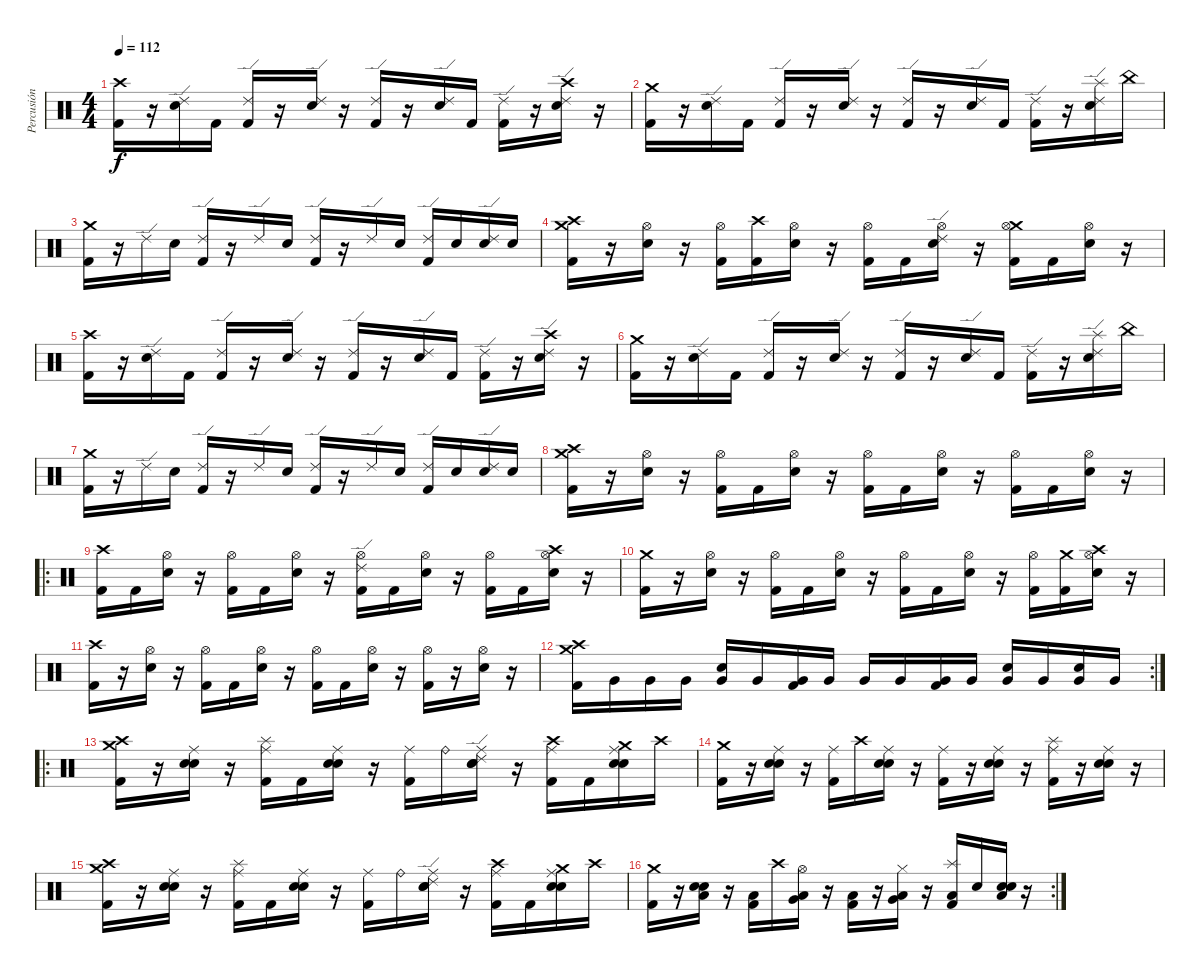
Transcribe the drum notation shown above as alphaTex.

\track ("Percusión" "Percusión") {instrument percussion}
\staff {score}
\articulation defaults
\ts (4 4)
\tempo 112
\clef neutral
\ks c
("Crash high (hit)" "Kick (hit) 2").16{dy f} r.16 ("Ride (edge) 2" "Electric Snare (hit)").16 "Kick (hit) 2".16 ("Ride (edge) 2" "Kick (hit) 2").16 r.16 ("Ride (edge) 2" "Electric Snare (hit)").16 r.16 ("Ride (edge) 2" "Kick (hit) 2").16 r.16 ("Ride (edge) 2" "Electric Snare (hit)").16 "Kick (hit) 2".16 ("Ride (edge) 2" "Kick (hit) 2").16 r.16 ("Crash high (hit)" "Ride (edge) 2" "Electric Snare (hit)").16 r.16 |
("Crash medium (hit)" "Kick (hit) 2").16 r.16 ("Ride (edge) 2" "Electric Snare (hit)").16 "Kick (hit) 2".16 ("Ride (edge) 2" "Kick (hit) 2").16 r.16 ("Ride (edge) 2" "Electric Snare (hit)").16 r.16 ("Ride (edge) 2" "Kick (hit) 2").16 r.16 ("Ride (edge) 2" "Electric Snare (hit)").16 "Kick (hit) 2".16 ("Ride (edge) 2" "Kick (hit) 2").16 r.16 ("Splash (hit)" "Ride (edge) 2" "Electric Snare (hit)").16 "China (hit)".16 |
("Crash medium (hit)" "Kick (hit) 2").16 r.16 "Ride (edge) 2".16 "Electric Snare (hit)".16 ("Ride (edge) 2" "Kick (hit) 2").16 r.16 "Ride (edge) 2".16 "Electric Snare (hit)".16 ("Ride (edge) 2" "Kick (hit) 2").16 r.16 "Ride (edge) 2".16 "Electric Snare (hit)".16 ("Ride (edge) 2" "Kick (hit) 2").16 "Electric Snare (hit)".16 ("Ride (edge) 2" "Electric Snare (hit)").16 "Electric Snare (hit)".16 |
("Crash high (hit)" "Crash medium (hit)" "Kick (hit) 2").16 r.16 ("Hi-Hat (open)" "Electric Snare (hit)").16 r.16 ("Hi-Hat (open)" "Kick (hit) 2").16 ("Crash high (hit)" "Kick (hit) 2").16 ("Hi-Hat (open)" "Electric Snare (hit)").16 r.16 ("Hi-Hat (open)" "Kick (hit) 2").16 "Kick (hit) 2".16 ("Ride (edge) 2" "Hi-Hat (open)" "Electric Snare (hit)").16 r.16 ("Crash medium (hit)" "Hi-Hat (open)" "Kick (hit) 2").16 "Kick (hit) 2".16 ("Hi-Hat (open)" "Electric Snare (hit)").16 r.16 |
("Crash high (hit)" "Kick (hit) 2").16 r.16 ("Ride (edge) 2" "Electric Snare (hit)").16 "Kick (hit) 2".16 ("Ride (edge) 2" "Kick (hit) 2").16 r.16 ("Ride (edge) 2" "Electric Snare (hit)").16 r.16 ("Ride (edge) 2" "Kick (hit) 2").16 r.16 ("Ride (edge) 2" "Electric Snare (hit)").16 "Kick (hit) 2".16 ("Ride (edge) 2" "Kick (hit) 2").16 r.16 ("Crash high (hit)" "Ride (edge) 2" "Electric Snare (hit)").16 r.16 |
("Crash medium (hit)" "Kick (hit) 2").16 r.16 ("Ride (edge) 2" "Electric Snare (hit)").16 "Kick (hit) 2".16 ("Ride (edge) 2" "Kick (hit) 2").16 r.16 ("Ride (edge) 2" "Electric Snare (hit)").16 r.16 ("Ride (edge) 2" "Kick (hit) 2").16 r.16 ("Ride (edge) 2" "Electric Snare (hit)").16 "Kick (hit) 2".16 ("Ride (edge) 2" "Kick (hit) 2").16 r.16 ("Splash (hit)" "Ride (edge) 2" "Electric Snare (hit)").16 "China (hit)".16 |
("Crash medium (hit)" "Kick (hit) 2").16 r.16 "Ride (edge) 2".16 "Electric Snare (hit)".16 ("Ride (edge) 2" "Kick (hit) 2").16 r.16 "Ride (edge) 2".16 "Electric Snare (hit)".16 ("Ride (edge) 2" "Kick (hit) 2").16 r.16 "Ride (edge) 2".16 "Electric Snare (hit)".16 ("Ride (edge) 2" "Kick (hit) 2").16 "Electric Snare (hit)".16 ("Ride (edge) 2" "Electric Snare (hit)").16 "Electric Snare (hit)".16 |
("Crash high (hit)" "Crash medium (hit)" "Kick (hit) 2").16 r.16 ("Hi-Hat (open)" "Electric Snare (hit)").16 r.16 ("Hi-Hat (open)" "Kick (hit) 2").16 "Kick (hit) 2".16 ("Hi-Hat (open)" "Electric Snare (hit)").16 r.16 ("Hi-Hat (open)" "Kick (hit) 2").16 "Kick (hit) 2".16 ("Hi-Hat (open)" "Electric Snare (hit)").16 r.16 ("Hi-Hat (open)" "Kick (hit) 2").16 "Kick (hit) 2".16 ("Hi-Hat (open)" "Electric Snare (hit)").16 r.16 |
\ro
("Crash high (hit)" "Kick (hit) 2").16 "Kick (hit) 2".16 ("Hi-Hat (open)" "Electric Snare (hit)").16 r.16 ("Hi-Hat (open)" "Kick (hit) 2").16 "Kick (hit) 2".16 ("Hi-Hat (open)" "Electric Snare (hit)").16 r.16 ("Ride (edge) 2" "Hi-Hat (open)" "Kick (hit) 2").16 "Kick (hit) 2".16 ("Hi-Hat (open)" "Electric Snare (hit)").16 r.16 ("Hi-Hat (open)" "Kick (hit) 2").16 "Kick (hit) 2".16 ("Crash high (hit)" "Hi-Hat (open)" "Electric Snare (hit)").16 r.16 |
("Crash medium (hit)" "Kick (hit) 2").16 r.16 ("Hi-Hat (open)" "Electric Snare (hit)").16 r.16 ("Hi-Hat (open)" "Kick (hit) 2").16 "Kick (hit) 2".16 ("Hi-Hat (open)" "Electric Snare (hit)").16 r.16 ("Hi-Hat (open)" "Kick (hit) 2").16 "Kick (hit) 2".16 ("Hi-Hat (open)" "Electric Snare (hit)").16 r.16 ("Hi-Hat (open)" "Kick (hit) 2").16 ("Crash medium (hit)" "Kick (hit) 2").16 ("Crash high (hit)" "Hi-Hat (open)" "Electric Snare (hit)").16 r.16 |
("Crash high (hit)" "Kick (hit) 2").16 r.16 ("Hi-Hat (open)" "Electric Snare (hit)").16 r.16 ("Hi-Hat (open)" "Kick (hit) 2").16 "Kick (hit) 2".16 ("Hi-Hat (open)" "Electric Snare (hit)").16 r.16 ("Hi-Hat (open)" "Kick (hit) 2").16 "Kick (hit) 2".16 ("Hi-Hat (open)" "Electric Snare (hit)").16 r.16 ("Hi-Hat (open)" "Kick (hit) 2").16 r.16 ("Hi-Hat (open)" "Electric Snare (hit)").16 r.16 |
\rc 2
("Crash medium (hit)" "Crash high (hit)" "Kick (hit) 2").16 "Very Low Tom (hit)".16 "Very Low Tom (hit)".16 "Very Low Tom (hit)".16 ("Very Low Tom (hit)" "Electric Snare (hit)").16 "Very Low Tom (hit)".16 ("Kick (hit) 2" "Very Low Tom (hit)").16 "Very Low Tom (hit)".16 "Very Low Tom (hit)".16 "Very Low Tom (hit)".16 ("Kick (hit) 2" "Very Low Tom (hit)").16 "Very Low Tom (hit)".16 ("Very Low Tom (hit)" "Electric Snare (hit)").16 "Very Low Tom (hit)".16 ("Very Low Tom (hit)" "Electric Snare (hit)").16 "Very Low Tom (hit)".16 |
\ro
("Crash medium (hit)" "Crash high (hit)" "Kick (hit) 2").16 r.16 ("Ride (middle)" "Electric Snare (hit)" "Electric Snare (hit)").16 r.16 ("Splash (hit)" "Ride (middle)" "Kick (hit) 2").16 "Kick (hit) 2".16 ("Ride (middle)" "Electric Snare (hit)" "Electric Snare (hit)").16 r.16 ("Ride (middle)" "Kick (hit) 2").16 "Ride (bell)".16 ("Ride (edge) 2" "Ride (middle)" "Electric Snare (hit)" "Electric Snare (hit)").16 r.16 ("Crash high (hit)" "Ride (middle)" "Kick (hit) 2").16 "Kick (hit) 2".16 ("Crash medium (hit)" "Ride (middle)" "Electric Snare (hit)" "Electric Snare (hit)").16 "Crash high (hit)".16 |
("Crash medium (hit)" "Kick (hit) 2").16 r.16 ("Ride (middle)" "Electric Snare (hit)" "Electric Snare (hit)").16 r.16 ("Ride (middle)" "Kick (hit) 2").16 "Crash high (hit)".16 ("Ride (middle)" "Electric Snare (hit)" "Electric Snare (hit)").16 r.16 ("Ride (middle)" "Kick (hit) 2").16 r.16 ("Ride (middle)" "Electric Snare (hit)" "Electric Snare (hit)").16 r.16 ("Splash (hit)" "Ride (middle)" "Kick (hit) 2").16 r.16 ("Ride (middle)" "Electric Snare (hit)" "Electric Snare (hit)").16 r.16 |
("Crash medium (hit)" "Crash high (hit)" "Kick (hit) 2").16 r.16 ("Ride (middle)" "Electric Snare (hit)" "Electric Snare (hit)").16 r.16 ("Splash (hit)" "Ride (middle)" "Kick (hit) 2").16 "Kick (hit) 2".16 ("Ride (middle)" "Electric Snare (hit)" "Electric Snare (hit)").16 r.16 ("Ride (middle)" "Kick (hit) 2").16 "Ride (bell)".16 ("Ride (edge) 2" "Ride (middle)" "Electric Snare (hit)" "Electric Snare (hit)").16 r.16 ("Crash high (hit)" "Ride (middle)" "Kick (hit) 2").16 "Kick (hit) 2".16 ("Crash medium (hit)" "Ride (middle)" "Electric Snare (hit)" "Electric Snare (hit)").16 "Crash high (hit)".16 |
\rc 2
("Crash medium (hit)" "Kick (hit) 2").16 r.16 ("Low Tom (hit)" "Electric Snare (hit)" "Electric Snare (hit)").16 r.16 ("Low Tom (hit)" "Kick (hit) 2").16 "Crash high (hit)".16 ("Low Tom (hit)" "Hi-Hat (open)" "Very Low Tom (hit)").16 r.16 ("Low Tom (hit)" "Kick (hit) 2").16 r.16 ("Low Tom (hit)" "Hi-Hat (closed)" "Very Low Tom (hit)").16 r.16 ("Splash (hit)" "Low Tom (hit)" "Kick (hit) 2").16 "Electric Snare (hit)".16 ("Low Tom (hit)" "Electric Snare (hit)" "Electric Snare (hit)").16 r.16
